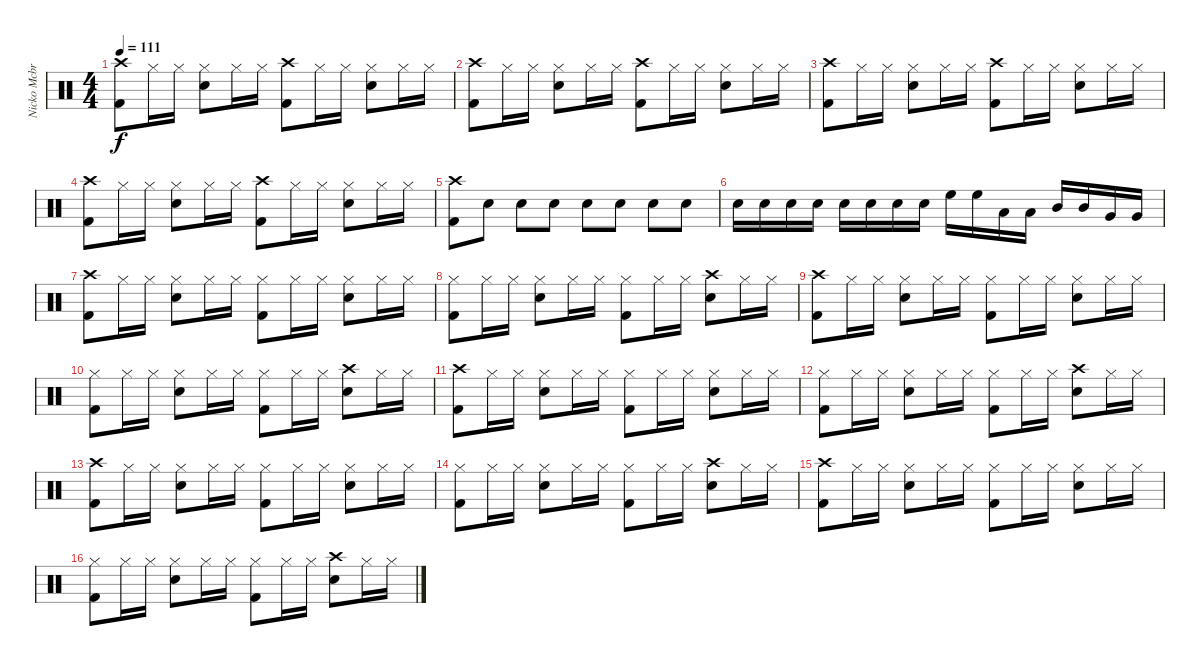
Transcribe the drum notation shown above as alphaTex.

\track ("Nicko Mcbrain" "Nicko Mcbr") {instrument percussion}
\staff {score}
\articulation defaults
\ts (4 4)
\tempo 111
\clef neutral
\ks c
("Crash high (hit)" "Kick (hit) 2").8{dy f} "Hi-Hat (closed)".16 "Hi-Hat (closed)".16 ("Hi-Hat (closed)" "Snare (hit) 2").8 "Hi-Hat (closed)".16 "Hi-Hat (closed)".16 ("Crash high (hit)" "Kick (hit) 2").8 "Hi-Hat (closed)".16 "Hi-Hat (closed)".16 ("Hi-Hat (closed)" "Snare (hit) 2").8 "Hi-Hat (closed)".16 "Hi-Hat (closed)".16 |
("Crash high (hit)" "Kick (hit) 2").8 "Hi-Hat (closed)".16 "Hi-Hat (closed)".16 ("Hi-Hat (closed)" "Snare (hit) 2").8 "Hi-Hat (closed)".16 "Hi-Hat (closed)".16 ("Crash high (hit)" "Kick (hit) 2").8 "Hi-Hat (closed)".16 "Hi-Hat (closed)".16 ("Hi-Hat (closed)" "Snare (hit) 2").8 "Hi-Hat (closed)".16 "Hi-Hat (closed)".16 |
("Crash high (hit)" "Kick (hit) 2").8 "Hi-Hat (closed)".16 "Hi-Hat (closed)".16 ("Hi-Hat (closed)" "Snare (hit) 2").8 "Hi-Hat (closed)".16 "Hi-Hat (closed)".16 ("Crash high (hit)" "Kick (hit) 2").8 "Hi-Hat (closed)".16 "Hi-Hat (closed)".16 ("Hi-Hat (closed)" "Snare (hit) 2").8 "Hi-Hat (closed)".16 "Hi-Hat (closed)".16 |
("Crash high (hit)" "Kick (hit) 2").8 "Hi-Hat (closed)".16 "Hi-Hat (closed)".16 ("Hi-Hat (closed)" "Snare (hit) 2").8 "Hi-Hat (closed)".16 "Hi-Hat (closed)".16 ("Crash high (hit)" "Kick (hit) 2").8 "Hi-Hat (closed)".16 "Hi-Hat (closed)".16 ("Hi-Hat (closed)" "Snare (hit) 2").8 "Hi-Hat (closed)".16 "Hi-Hat (closed)".16 |
("Crash high (hit)" "Kick (hit) 2").8 "Snare (hit) 2".8 "Snare (hit) 2".8 "Snare (hit) 2".8 "Snare (hit) 2".8 "Snare (hit) 2".8 "Snare (hit) 2".8 "Snare (hit) 2".8 |
"Snare (hit) 2".16 "Snare (hit) 2".16 "Snare (hit) 2".16 "Snare (hit) 2".16 "Snare (hit) 2".16 "Snare (hit) 2".16 "Snare (hit) 2".16 "Snare (hit) 2".16 "High Floor Tom (hit)".16 "High Floor Tom (hit)".16 "Low Tom (hit)".16 "Low Tom (hit)".16 "Mid Tom (hit)".16 "Mid Tom (hit)".16 "Very Low Tom (hit)".16 "Very Low Tom (hit)".16 |
("Crash high (hit)" "Kick (hit) 2").8 "Hi-Hat (closed)".16 "Hi-Hat (closed)".16 ("Hi-Hat (closed)" "Snare (hit) 2").8 "Hi-Hat (closed)".16 "Hi-Hat (closed)".16 ("Hi-Hat (closed)" "Kick (hit) 2").8 "Hi-Hat (closed)".16 "Hi-Hat (closed)".16 ("Hi-Hat (closed)" "Snare (hit) 2").8 "Hi-Hat (closed)".16 "Hi-Hat (closed)".16 |
("Hi-Hat (closed)" "Kick (hit) 2").8 "Hi-Hat (closed)".16 "Hi-Hat (closed)".16 ("Hi-Hat (closed)" "Snare (hit) 2").8 "Hi-Hat (closed)".16 "Hi-Hat (closed)".16 ("Hi-Hat (closed)" "Kick (hit) 2").8 "Hi-Hat (closed)".16 "Hi-Hat (closed)".16 ("Crash high (hit)" "Snare (hit) 2").8 "Hi-Hat (closed)".16 "Hi-Hat (closed)".16 |
("Crash high (hit)" "Kick (hit) 2").8 "Hi-Hat (closed)".16 "Hi-Hat (closed)".16 ("Hi-Hat (closed)" "Snare (hit) 2").8 "Hi-Hat (closed)".16 "Hi-Hat (closed)".16 ("Hi-Hat (closed)" "Kick (hit) 2").8 "Hi-Hat (closed)".16 "Hi-Hat (closed)".16 ("Hi-Hat (closed)" "Snare (hit) 2").8 "Hi-Hat (closed)".16 "Hi-Hat (closed)".16 |
("Hi-Hat (closed)" "Kick (hit) 2").8 "Hi-Hat (closed)".16 "Hi-Hat (closed)".16 ("Hi-Hat (closed)" "Snare (hit) 2").8 "Hi-Hat (closed)".16 "Hi-Hat (closed)".16 ("Hi-Hat (closed)" "Kick (hit) 2").8 "Hi-Hat (closed)".16 "Hi-Hat (closed)".16 ("Crash high (hit)" "Snare (hit) 2").8 "Hi-Hat (closed)".16 "Hi-Hat (closed)".16 |
("Crash high (hit)" "Kick (hit) 2").8 "Hi-Hat (closed)".16 "Hi-Hat (closed)".16 ("Hi-Hat (closed)" "Snare (hit) 2").8 "Hi-Hat (closed)".16 "Hi-Hat (closed)".16 ("Hi-Hat (closed)" "Kick (hit) 2").8 "Hi-Hat (closed)".16 "Hi-Hat (closed)".16 ("Hi-Hat (closed)" "Snare (hit) 2").8 "Hi-Hat (closed)".16 "Hi-Hat (closed)".16 |
("Hi-Hat (closed)" "Kick (hit) 2").8 "Hi-Hat (closed)".16 "Hi-Hat (closed)".16 ("Hi-Hat (closed)" "Snare (hit) 2").8 "Hi-Hat (closed)".16 "Hi-Hat (closed)".16 ("Hi-Hat (closed)" "Kick (hit) 2").8 "Hi-Hat (closed)".16 "Hi-Hat (closed)".16 ("Crash high (hit)" "Snare (hit) 2").8 "Hi-Hat (closed)".16 "Hi-Hat (closed)".16 |
("Crash high (hit)" "Kick (hit) 2").8 "Hi-Hat (closed)".16 "Hi-Hat (closed)".16 ("Hi-Hat (closed)" "Snare (hit) 2").8 "Hi-Hat (closed)".16 "Hi-Hat (closed)".16 ("Hi-Hat (closed)" "Kick (hit) 2").8 "Hi-Hat (closed)".16 "Hi-Hat (closed)".16 ("Hi-Hat (closed)" "Snare (hit) 2").8 "Hi-Hat (closed)".16 "Hi-Hat (closed)".16 |
("Hi-Hat (closed)" "Kick (hit) 2").8 "Hi-Hat (closed)".16 "Hi-Hat (closed)".16 ("Hi-Hat (closed)" "Snare (hit) 2").8 "Hi-Hat (closed)".16 "Hi-Hat (closed)".16 ("Hi-Hat (closed)" "Kick (hit) 2").8 "Hi-Hat (closed)".16 "Hi-Hat (closed)".16 ("Crash high (hit)" "Snare (hit) 2").8 "Hi-Hat (closed)".16 "Hi-Hat (closed)".16 |
("Crash high (hit)" "Kick (hit) 2").8 "Hi-Hat (closed)".16 "Hi-Hat (closed)".16 ("Hi-Hat (closed)" "Snare (hit) 2").8 "Hi-Hat (closed)".16 "Hi-Hat (closed)".16 ("Hi-Hat (closed)" "Kick (hit) 2").8 "Hi-Hat (closed)".16 "Hi-Hat (closed)".16 ("Hi-Hat (closed)" "Snare (hit) 2").8 "Hi-Hat (closed)".16 "Hi-Hat (closed)".16 |
("Hi-Hat (closed)" "Kick (hit) 2").8 "Hi-Hat (closed)".16 "Hi-Hat (closed)".16 ("Hi-Hat (closed)" "Snare (hit) 2").8 "Hi-Hat (closed)".16 "Hi-Hat (closed)".16 ("Hi-Hat (closed)" "Kick (hit) 2").8 "Hi-Hat (closed)".16 "Hi-Hat (closed)".16 ("Crash high (hit)" "Snare (hit) 2").8 "Hi-Hat (closed)".16 "Hi-Hat (closed)".16
